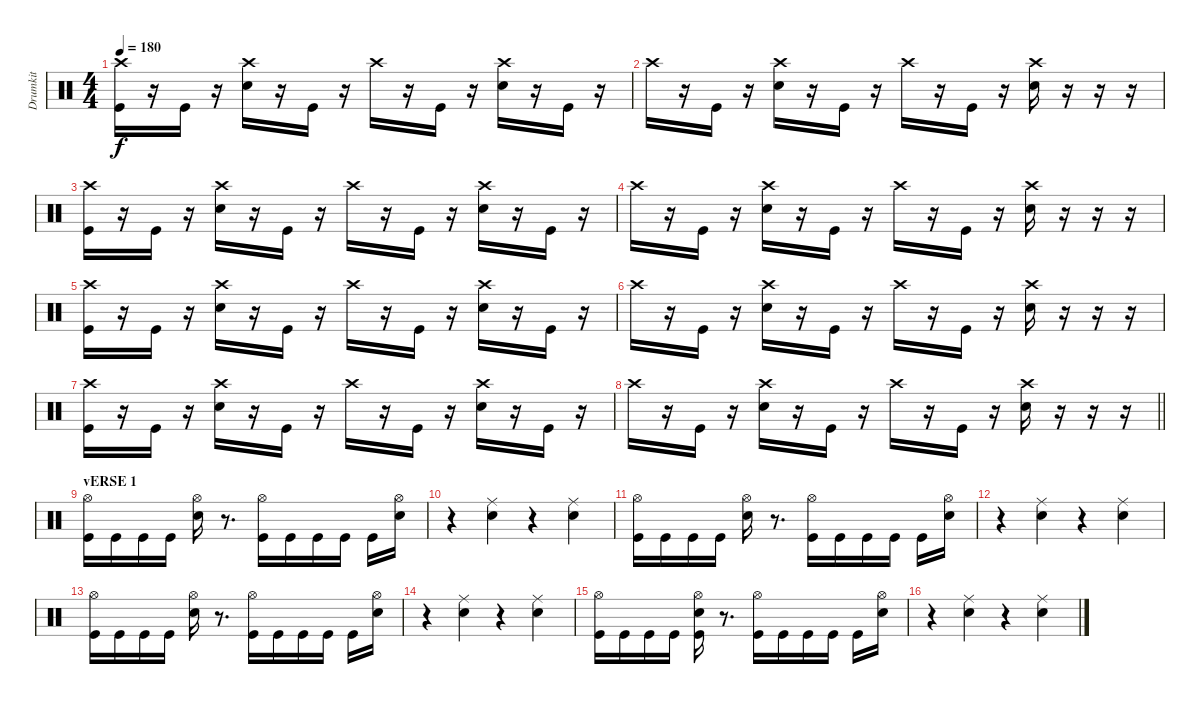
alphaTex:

\track ("Drumkit" "Drumkit") {instrument percussion}
\staff {score}
\articulation defaults
\ts (4 4)
\tempo 180
\clef neutral
\ks c
("Crash high (hit)" "Kick (hit)").16{dy f} r.16 "Kick (hit)".16 r.16 ("Crash high (hit)" "Snare (hit) 2").16 r.16 "Kick (hit)".16 r.16 "Crash high (hit)".16 r.16 "Kick (hit)".16 r.16 ("Crash high (hit)" "Snare (hit) 2").16 r.16 "Kick (hit)".16 r.16 |
"Crash high (hit)".16 r.16 "Kick (hit)".16 r.16 ("Crash high (hit)" "Snare (hit) 2").16 r.16 "Kick (hit)".16 r.16 "Crash high (hit)".16 r.16 "Kick (hit)".16 r.16 ("Crash high (hit)" "Snare (hit) 2").16 r.16 r.16 r.16 |
("Crash high (hit)" "Kick (hit)").16 r.16 "Kick (hit)".16 r.16 ("Crash high (hit)" "Snare (hit) 2").16 r.16 "Kick (hit)".16 r.16 "Crash high (hit)".16 r.16 "Kick (hit)".16 r.16 ("Crash high (hit)" "Snare (hit) 2").16 r.16 "Kick (hit)".16 r.16 |
"Crash high (hit)".16 r.16 "Kick (hit)".16 r.16 ("Crash high (hit)" "Snare (hit) 2").16 r.16 "Kick (hit)".16 r.16 "Crash high (hit)".16 r.16 "Kick (hit)".16 r.16 ("Crash high (hit)" "Snare (hit) 2").16 r.16 r.16 r.16 |
("Crash high (hit)" "Kick (hit)").16 r.16 "Kick (hit)".16 r.16 ("Crash high (hit)" "Snare (hit) 2").16 r.16 "Kick (hit)".16 r.16 "Crash high (hit)".16 r.16 "Kick (hit)".16 r.16 ("Crash high (hit)" "Snare (hit) 2").16 r.16 "Kick (hit)".16 r.16 |
"Crash high (hit)".16 r.16 "Kick (hit)".16 r.16 ("Crash high (hit)" "Snare (hit) 2").16 r.16 "Kick (hit)".16 r.16 "Crash high (hit)".16 r.16 "Kick (hit)".16 r.16 ("Crash high (hit)" "Snare (hit) 2").16 r.16 r.16 r.16 |
("Crash high (hit)" "Kick (hit)").16 r.16 "Kick (hit)".16 r.16 ("Crash high (hit)" "Snare (hit) 2").16 r.16 "Kick (hit)".16 r.16 "Crash high (hit)".16 r.16 "Kick (hit)".16 r.16 ("Crash high (hit)" "Snare (hit) 2").16 r.16 "Kick (hit)".16 r.16 |
\barLineRight lightlight "Crash high (hit)".16
r.16 "Kick (hit)".16 r.16 ("Crash high (hit)" "Snare (hit) 2").16 r.16 "Kick (hit)".16 r.16 "Crash high (hit)".16 r.16 "Kick (hit)".16 r.16 ("Crash high (hit)" "Snare (hit) 2").16 r.16 r.16 r.16 |
\section ("" "vERSE 1")
("Hi-Hat (open)" "Kick (hit)").16 "Kick (hit)".16 "Kick (hit)".16 "Kick (hit)".16 ("Hi-Hat (open)" "Snare (hit) 2").16 r.8{d} ("Hi-Hat (open)" "Kick (hit)").16 "Kick (hit)".16 "Kick (hit)".16 "Kick (hit)".16 "Kick (hit)".16 ("Hi-Hat (open)" "Snare (hit) 2").16 |
r.4 ("Ride (middle)" "Snare (hit) 2").4 r.4 ("Ride (middle)" "Snare (hit) 2").4 |
("Hi-Hat (open)" "Kick (hit)").16 "Kick (hit)".16 "Kick (hit)".16 "Kick (hit)".16 ("Hi-Hat (open)" "Snare (hit) 2").16 r.8{d} ("Hi-Hat (open)" "Kick (hit)").16 "Kick (hit)".16 "Kick (hit)".16 "Kick (hit)".16 "Kick (hit)".16 ("Hi-Hat (open)" "Snare (hit) 2").16 |
r.4 ("Ride (middle)" "Snare (hit) 2").4 r.4 ("Ride (middle)" "Snare (hit) 2").4 |
("Hi-Hat (open)" "Kick (hit)").16 "Kick (hit)".16 "Kick (hit)".16 "Kick (hit)".16 ("Hi-Hat (open)" "Snare (hit) 2").16 r.8{d} ("Hi-Hat (open)" "Kick (hit)").16 "Kick (hit)".16 "Kick (hit)".16 "Kick (hit)".16 "Kick (hit)".16 ("Hi-Hat (open)" "Snare (hit) 2").16 |
r.4 ("Ride (middle)" "Snare (hit) 2").4 r.4 ("Ride (middle)" "Snare (hit) 2").4 |
("Hi-Hat (open)" "Kick (hit)").16 "Kick (hit)".16 "Kick (hit)".16 "Kick (hit)".16 ("Hi-Hat (open)" "Snare (hit) 2" "Kick (hit)").16 r.8{d} ("Hi-Hat (open)" "Kick (hit)").16 "Kick (hit)".16 "Kick (hit)".16 "Kick (hit)".16 "Kick (hit)".16 ("Hi-Hat (open)" "Snare (hit) 2").16 |
r.4 ("Ride (middle)" "Snare (hit) 2").4 r.4 ("Ride (middle)" "Snare (hit) 2").4
